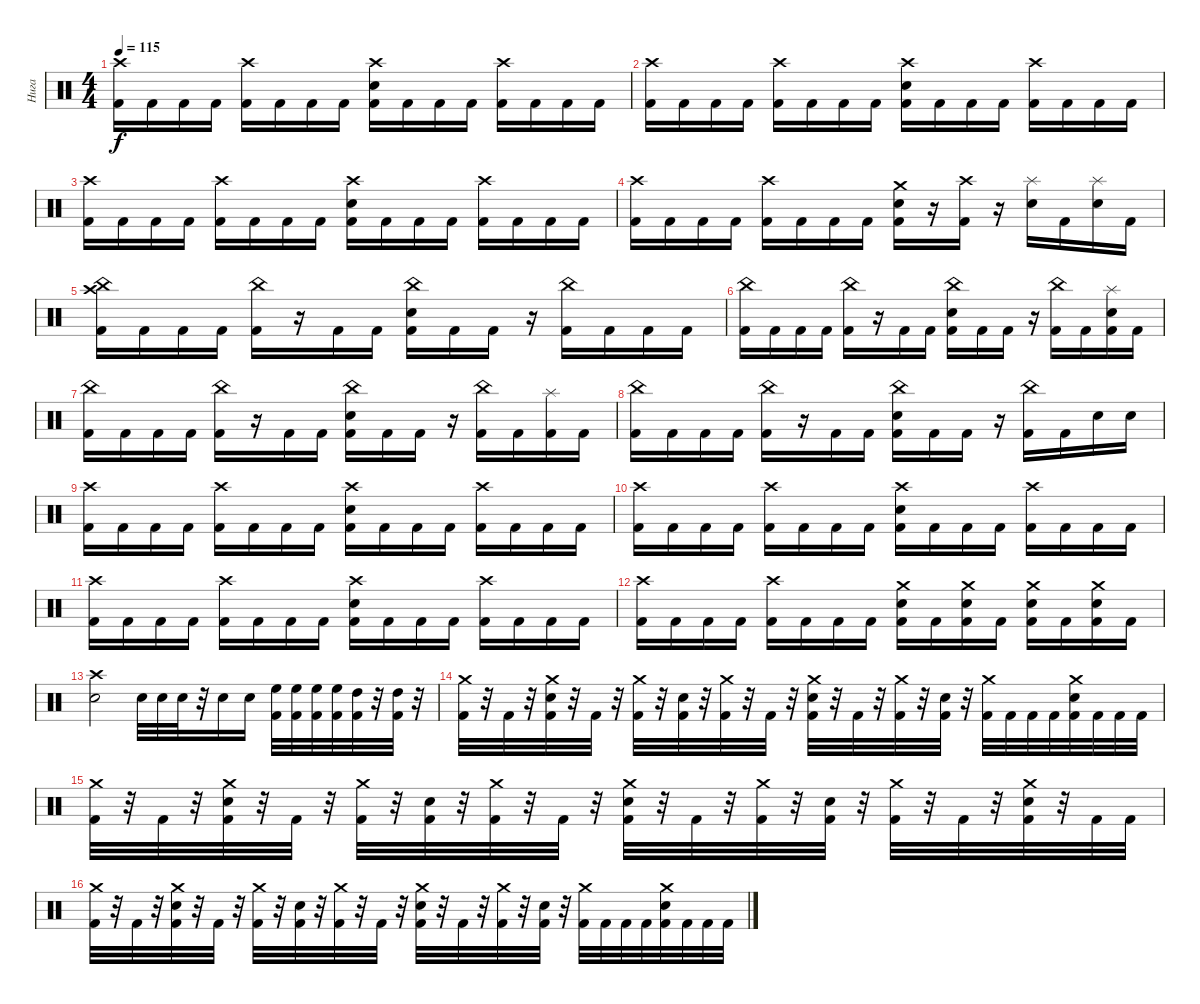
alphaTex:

\track ("Нига" "Нига") {instrument percussion}
\staff {score}
\articulation defaults
\ts (4 4)
\tempo 115
\clef neutral
\ks c
("Crash high (hit)" "Kick (hit) 2").16{dy f} "Kick (hit) 2".16 "Kick (hit) 2".16 "Kick (hit) 2".16 ("Crash high (hit)" "Kick (hit) 2").16 "Kick (hit) 2".16 "Kick (hit) 2".16 "Kick (hit) 2".16 ("Crash high (hit)" "Electric Snare (hit)" "Kick (hit) 2").16 "Kick (hit) 2".16 "Kick (hit) 2".16 "Kick (hit) 2".16 ("Crash high (hit)" "Kick (hit) 2").16 "Kick (hit) 2".16 "Kick (hit) 2".16 "Kick (hit) 2".16 |
("Crash high (hit)" "Kick (hit) 2").16 "Kick (hit) 2".16 "Kick (hit) 2".16 "Kick (hit) 2".16 ("Crash high (hit)" "Kick (hit) 2").16 "Kick (hit) 2".16 "Kick (hit) 2".16 "Kick (hit) 2".16 ("Crash high (hit)" "Electric Snare (hit)" "Kick (hit) 2").16 "Kick (hit) 2".16 "Kick (hit) 2".16 "Kick (hit) 2".16 ("Crash high (hit)" "Kick (hit) 2").16 "Kick (hit) 2".16 "Kick (hit) 2".16 "Kick (hit) 2".16 |
("Crash high (hit)" "Kick (hit) 2").16 "Kick (hit) 2".16 "Kick (hit) 2".16 "Kick (hit) 2".16 ("Crash high (hit)" "Kick (hit) 2").16 "Kick (hit) 2".16 "Kick (hit) 2".16 "Kick (hit) 2".16 ("Crash high (hit)" "Electric Snare (hit)" "Kick (hit) 2").16 "Kick (hit) 2".16 "Kick (hit) 2".16 "Kick (hit) 2".16 ("Crash high (hit)" "Kick (hit) 2").16 "Kick (hit) 2".16 "Kick (hit) 2".16 "Kick (hit) 2".16 |
("Crash high (hit)" "Kick (hit) 2").16 "Kick (hit) 2".16 "Kick (hit) 2".16 "Kick (hit) 2".16 ("Crash high (hit)" "Kick (hit) 2").16 "Kick (hit) 2".16 "Kick (hit) 2".16 "Kick (hit) 2".16 ("Crash medium (hit)" "Electric Snare (hit)" "Kick (hit) 2").16 r.16 ("Crash high (hit)" "Kick (hit) 2").16 r.16 ("Splash (hit)" "Electric Snare (hit)").16 "Kick (hit) 2".16 ("Splash (hit)" "Electric Snare (hit)").16 "Kick (hit) 2".16 |
("China (hit)" "Crash high (hit)" "Kick (hit) 2").16 "Kick (hit) 2".16 "Kick (hit) 2".16 "Kick (hit) 2".16 ("China (hit)" "Kick (hit) 2").16 r.16 "Kick (hit) 2".16 "Kick (hit) 2".16 ("China (hit)" "Electric Snare (hit)" "Kick (hit) 2").16 "Kick (hit) 2".16 "Kick (hit) 2".16 r.16 ("China (hit)" "Kick (hit) 2").16 "Kick (hit) 2".16 "Kick (hit) 2".16 "Kick (hit) 2".16 |
("China (hit)" "Kick (hit) 2").16 "Kick (hit) 2".16 "Kick (hit) 2".16 "Kick (hit) 2".16 ("China (hit)" "Kick (hit) 2").16 r.16 "Kick (hit) 2".16 "Kick (hit) 2".16 ("China (hit)" "Electric Snare (hit)" "Kick (hit) 2").16 "Kick (hit) 2".16 "Kick (hit) 2".16 r.16 ("China (hit)" "Kick (hit) 2").16 "Kick (hit) 2".16 ("Splash (hit)" "Electric Snare (hit)" "Kick (hit) 2").16 "Kick (hit) 2".16 |
("China (hit)" "Kick (hit) 2").16 "Kick (hit) 2".16 "Kick (hit) 2".16 "Kick (hit) 2".16 ("China (hit)" "Kick (hit) 2").16 r.16 "Kick (hit) 2".16 "Kick (hit) 2".16 ("China (hit)" "Electric Snare (hit)" "Kick (hit) 2").16 "Kick (hit) 2".16 "Kick (hit) 2".16 r.16 ("China (hit)" "Kick (hit) 2").16 "Kick (hit) 2".16 ("Splash (hit)" "Kick (hit) 2").16 "Kick (hit) 2".16 |
("China (hit)" "Kick (hit) 2").16 "Kick (hit) 2".16 "Kick (hit) 2".16 "Kick (hit) 2".16 ("China (hit)" "Kick (hit) 2").16 r.16 "Kick (hit) 2".16 "Kick (hit) 2".16 ("China (hit)" "Electric Snare (hit)" "Kick (hit) 2").16 "Kick (hit) 2".16 "Kick (hit) 2".16 r.16 ("China (hit)" "Kick (hit) 2").16 "Kick (hit) 2".16 "Electric Snare (hit)".16 "Electric Snare (hit)".16 |
("Crash high (hit)" "Kick (hit) 2").16 "Kick (hit) 2".16 "Kick (hit) 2".16 "Kick (hit) 2".16 ("Crash high (hit)" "Kick (hit) 2").16 "Kick (hit) 2".16 "Kick (hit) 2".16 "Kick (hit) 2".16 ("Crash high (hit)" "Electric Snare (hit)" "Kick (hit) 2").16 "Kick (hit) 2".16 "Kick (hit) 2".16 "Kick (hit) 2".16 ("Crash high (hit)" "Kick (hit) 2").16 "Kick (hit) 2".16 "Kick (hit) 2".16 "Kick (hit) 2".16 |
("Crash high (hit)" "Kick (hit) 2").16 "Kick (hit) 2".16 "Kick (hit) 2".16 "Kick (hit) 2".16 ("Crash high (hit)" "Kick (hit) 2").16 "Kick (hit) 2".16 "Kick (hit) 2".16 "Kick (hit) 2".16 ("Crash high (hit)" "Electric Snare (hit)" "Kick (hit) 2").16 "Kick (hit) 2".16 "Kick (hit) 2".16 "Kick (hit) 2".16 ("Crash high (hit)" "Kick (hit) 2").16 "Kick (hit) 2".16 "Kick (hit) 2".16 "Kick (hit) 2".16 |
("Crash high (hit)" "Kick (hit) 2").16 "Kick (hit) 2".16 "Kick (hit) 2".16 "Kick (hit) 2".16 ("Crash high (hit)" "Kick (hit) 2").16 "Kick (hit) 2".16 "Kick (hit) 2".16 "Kick (hit) 2".16 ("Crash high (hit)" "Electric Snare (hit)" "Kick (hit) 2").16 "Kick (hit) 2".16 "Kick (hit) 2".16 "Kick (hit) 2".16 ("Crash high (hit)" "Kick (hit) 2").16 "Kick (hit) 2".16 "Kick (hit) 2".16 "Kick (hit) 2".16 |
("Crash high (hit)" "Kick (hit) 2").16 "Kick (hit) 2".16 "Kick (hit) 2".16 "Kick (hit) 2".16 ("Crash high (hit)" "Kick (hit) 2").16 "Kick (hit) 2".16 "Kick (hit) 2".16 "Kick (hit) 2".16 ("Crash medium (hit)" "Electric Snare (hit)" "Kick (hit) 2").16 "Kick (hit) 2".16 ("Crash medium (hit)" "Electric Snare (hit)" "Kick (hit) 2").16 "Kick (hit) 2".16 ("Crash medium (hit)" "Electric Snare (hit)" "Kick (hit) 2").16 "Kick (hit) 2".16 ("Crash medium (hit)" "Electric Snare (hit)" "Kick (hit) 2").16 "Kick (hit) 2".16 |
("Crash high (hit)" "Snare (hit) 2").2 "Snare (hit) 2".32 "Snare (hit) 2".32 "Snare (hit) 2".32 r.32 "Snare (hit) 2".16 "Snare (hit) 2".16 ("High Floor Tom (hit)" "Kick (hit) 2").32 ("High Floor Tom (hit)" "Kick (hit) 2").32 ("High Floor Tom (hit)" "Kick (hit) 2").32 ("High Floor Tom (hit)" "Kick (hit) 2").32 ("High Tom (hit)" "Kick (hit) 2").32 r.32 ("High Tom (hit)" "Kick (hit) 2").32 r.32 |
("Crash medium (hit)" "Kick (hit) 2").32 r.32 "Kick (hit) 2".32 r.32 ("Crash medium (hit)" "Snare (hit) 2" "Kick (hit) 2").32 r.32 "Kick (hit) 2".32 r.32 ("Crash medium (hit)" "Kick (hit) 2").32 r.32 ("Snare (hit) 2" "Kick (hit) 2").32 r.32 ("Crash medium (hit)" "Kick (hit) 2").32 r.32 "Kick (hit) 2".32 r.32 ("Crash medium (hit)" "Snare (hit) 2" "Kick (hit) 2").32 r.32 "Kick (hit) 2".32 r.32 ("Crash medium (hit)" "Kick (hit) 2").32 r.32 ("Snare (hit) 2" "Kick (hit) 2").32 r.32 ("Crash medium (hit)" "Kick (hit) 2").32 "Kick (hit) 2".32 "Kick (hit) 2".32 "Kick (hit) 2".32 ("Crash medium (hit)" "Snare (hit) 2" "Kick (hit) 2").32 "Kick (hit) 2".32 "Kick (hit) 2".32 "Kick (hit) 2".32 |
("Crash medium (hit)" "Kick (hit) 2").32 r.32 "Kick (hit) 2".32 r.32 ("Crash medium (hit)" "Snare (hit) 2" "Kick (hit) 2").32 r.32 "Kick (hit) 2".32 r.32 ("Crash medium (hit)" "Kick (hit) 2").32 r.32 ("Snare (hit) 2" "Kick (hit) 2").32 r.32 ("Crash medium (hit)" "Kick (hit) 2").32 r.32 "Kick (hit) 2".32 r.32 ("Crash medium (hit)" "Snare (hit) 2" "Kick (hit) 2").32 r.32 "Kick (hit) 2".32 r.32 ("Crash medium (hit)" "Kick (hit) 2").32 r.32 ("Snare (hit) 2" "Kick (hit) 2").32 r.32 ("Crash medium (hit)" "Kick (hit) 2").32 r.32 "Kick (hit) 2".32 r.32 ("Crash medium (hit)" "Snare (hit) 2" "Kick (hit) 2").32 r.32 "Kick (hit) 2".32 "Kick (hit) 2".32 |
("Crash medium (hit)" "Kick (hit) 2").32 r.32 "Kick (hit) 2".32 r.32 ("Crash medium (hit)" "Snare (hit) 2" "Kick (hit) 2").32 r.32 "Kick (hit) 2".32 r.32 ("Crash medium (hit)" "Kick (hit) 2").32 r.32 ("Snare (hit) 2" "Kick (hit) 2").32 r.32 ("Crash medium (hit)" "Kick (hit) 2").32 r.32 "Kick (hit) 2".32 r.32 ("Crash medium (hit)" "Snare (hit) 2" "Kick (hit) 2").32 r.32 "Kick (hit) 2".32 r.32 ("Crash medium (hit)" "Kick (hit) 2").32 r.32 ("Snare (hit) 2" "Kick (hit) 2").32 r.32 ("Crash medium (hit)" "Kick (hit) 2").32 "Kick (hit) 2".32 "Kick (hit) 2".32 "Kick (hit) 2".32 ("Crash medium (hit)" "Snare (hit) 2" "Kick (hit) 2").32 "Kick (hit) 2".32 "Kick (hit) 2".32 "Kick (hit) 2".32
